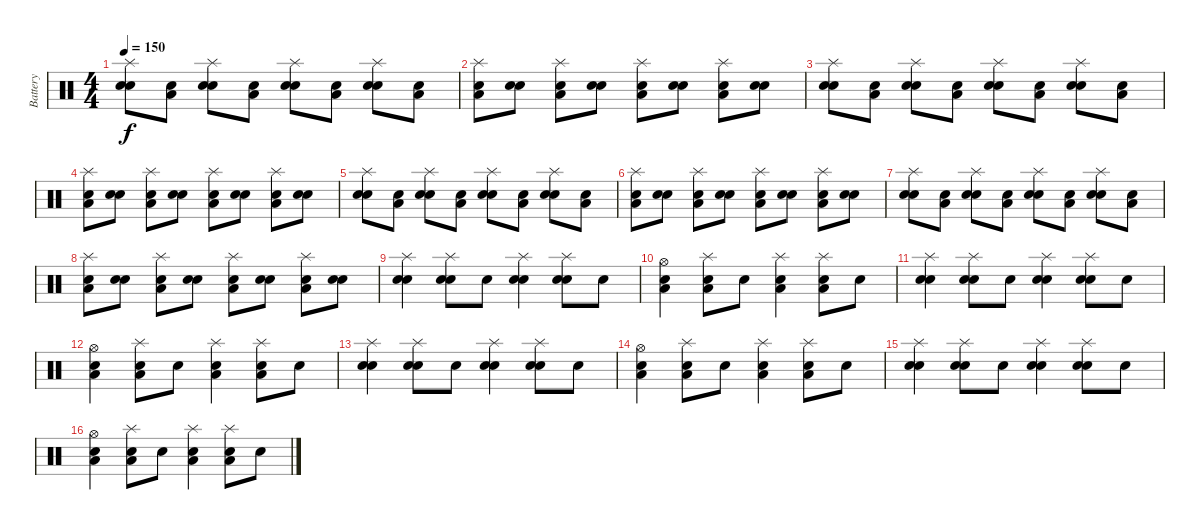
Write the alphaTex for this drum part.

\track ("Battery" "Battery") {instrument percussion}
\staff {score}
\articulation defaults
\ts (4 4)
\tempo 150
\clef neutral
\ks c
("Snare (hit) 2" "Splash (hit)" "Electric Snare (hit)").8{dy f} ("Snare (hit) 2" "Low Floor Tom (hit)").8 ("Snare (hit) 2" "Splash (hit)" "Electric Snare (hit)").8 ("Snare (hit) 2" "Low Floor Tom (hit)").8 ("Snare (hit) 2" "Splash (hit)" "Electric Snare (hit)").8 ("Snare (hit) 2" "Low Floor Tom (hit)").8 ("Snare (hit) 2" "Splash (hit)" "Electric Snare (hit)").8 ("Snare (hit) 2" "Low Floor Tom (hit)").8 |
("Snare (hit) 2" "Splash (hit)" "Low Floor Tom (hit)").8 ("Snare (hit) 2" "Electric Snare (hit)").8 ("Snare (hit) 2" "Splash (hit)" "Low Floor Tom (hit)").8 ("Snare (hit) 2" "Electric Snare (hit)").8 ("Snare (hit) 2" "Splash (hit)" "Low Floor Tom (hit)").8 ("Snare (hit) 2" "Electric Snare (hit)").8 ("Snare (hit) 2" "Splash (hit)" "Low Floor Tom (hit)").8 ("Snare (hit) 2" "Electric Snare (hit)").8 |
("Snare (hit) 2" "Splash (hit)" "Electric Snare (hit)").8 ("Snare (hit) 2" "Low Floor Tom (hit)").8 ("Snare (hit) 2" "Splash (hit)" "Electric Snare (hit)").8 ("Snare (hit) 2" "Low Floor Tom (hit)").8 ("Snare (hit) 2" "Splash (hit)" "Electric Snare (hit)").8 ("Snare (hit) 2" "Low Floor Tom (hit)").8 ("Snare (hit) 2" "Splash (hit)" "Electric Snare (hit)").8 ("Snare (hit) 2" "Low Floor Tom (hit)").8 |
("Snare (hit) 2" "Splash (hit)" "Low Floor Tom (hit)").8 ("Snare (hit) 2" "Electric Snare (hit)").8 ("Snare (hit) 2" "Splash (hit)" "Low Floor Tom (hit)").8 ("Snare (hit) 2" "Electric Snare (hit)").8 ("Snare (hit) 2" "Splash (hit)" "Low Floor Tom (hit)").8 ("Snare (hit) 2" "Electric Snare (hit)").8 ("Snare (hit) 2" "Splash (hit)" "Low Floor Tom (hit)").8 ("Snare (hit) 2" "Electric Snare (hit)").8 |
("Snare (hit) 2" "Splash (hit)" "Electric Snare (hit)").8 ("Snare (hit) 2" "Low Floor Tom (hit)").8 ("Snare (hit) 2" "Splash (hit)" "Electric Snare (hit)").8 ("Snare (hit) 2" "Low Floor Tom (hit)").8 ("Snare (hit) 2" "Splash (hit)" "Electric Snare (hit)").8 ("Snare (hit) 2" "Low Floor Tom (hit)").8 ("Snare (hit) 2" "Splash (hit)" "Electric Snare (hit)").8 ("Snare (hit) 2" "Low Floor Tom (hit)").8 |
("Snare (hit) 2" "Splash (hit)" "Low Floor Tom (hit)").8 ("Snare (hit) 2" "Electric Snare (hit)").8 ("Snare (hit) 2" "Splash (hit)" "Low Floor Tom (hit)").8 ("Snare (hit) 2" "Electric Snare (hit)").8 ("Snare (hit) 2" "Splash (hit)" "Low Floor Tom (hit)").8 ("Snare (hit) 2" "Electric Snare (hit)").8 ("Snare (hit) 2" "Splash (hit)" "Low Floor Tom (hit)").8 ("Snare (hit) 2" "Electric Snare (hit)").8 |
("Snare (hit) 2" "Splash (hit)" "Electric Snare (hit)").8 ("Snare (hit) 2" "Low Floor Tom (hit)").8 ("Snare (hit) 2" "Splash (hit)" "Electric Snare (hit)").8 ("Snare (hit) 2" "Low Floor Tom (hit)").8 ("Snare (hit) 2" "Splash (hit)" "Electric Snare (hit)").8 ("Snare (hit) 2" "Low Floor Tom (hit)").8 ("Snare (hit) 2" "Splash (hit)" "Electric Snare (hit)").8 ("Snare (hit) 2" "Low Floor Tom (hit)").8 |
("Snare (hit) 2" "Splash (hit)" "Low Floor Tom (hit)").8 ("Snare (hit) 2" "Electric Snare (hit)").8 ("Snare (hit) 2" "Splash (hit)" "Low Floor Tom (hit)").8 ("Snare (hit) 2" "Electric Snare (hit)").8 ("Snare (hit) 2" "Splash (hit)" "Low Floor Tom (hit)").8 ("Snare (hit) 2" "Electric Snare (hit)").8 ("Snare (hit) 2" "Splash (hit)" "Low Floor Tom (hit)").8 ("Snare (hit) 2" "Electric Snare (hit)").8 |
("Snare (hit) 2" "Electric Snare (hit)" "Splash (hit)").4 ("Snare (hit) 2" "Electric Snare (hit)" "Splash (hit)").8 "Snare (hit) 2".8 ("Snare (hit) 2" "Electric Snare (hit)" "Splash (hit)").4 ("Snare (hit) 2" "Electric Snare (hit)" "Splash (hit)").8 "Snare (hit) 2".8 |
("Snare (hit) 2" "Low Floor Tom (hit)" "Hi-Hat (open)").4 ("Snare (hit) 2" "Low Floor Tom (hit)" "Splash (hit)").8 "Snare (hit) 2".8 ("Snare (hit) 2" "Low Floor Tom (hit)" "Splash (hit)").4 ("Snare (hit) 2" "Low Floor Tom (hit)" "Splash (hit)").8 "Snare (hit) 2".8 |
("Snare (hit) 2" "Electric Snare (hit)" "Splash (hit)").4 ("Snare (hit) 2" "Electric Snare (hit)" "Splash (hit)").8 "Snare (hit) 2".8 ("Snare (hit) 2" "Electric Snare (hit)" "Splash (hit)").4 ("Snare (hit) 2" "Electric Snare (hit)" "Splash (hit)").8 "Snare (hit) 2".8 |
("Snare (hit) 2" "Low Floor Tom (hit)" "Hi-Hat (open)").4 ("Snare (hit) 2" "Low Floor Tom (hit)" "Splash (hit)").8 "Snare (hit) 2".8 ("Snare (hit) 2" "Low Floor Tom (hit)" "Splash (hit)").4 ("Snare (hit) 2" "Low Floor Tom (hit)" "Splash (hit)").8 "Snare (hit) 2".8 |
("Snare (hit) 2" "Electric Snare (hit)" "Splash (hit)").4 ("Snare (hit) 2" "Electric Snare (hit)" "Splash (hit)").8 "Snare (hit) 2".8 ("Snare (hit) 2" "Electric Snare (hit)" "Splash (hit)").4 ("Snare (hit) 2" "Electric Snare (hit)" "Splash (hit)").8 "Snare (hit) 2".8 |
("Snare (hit) 2" "Low Floor Tom (hit)" "Hi-Hat (open)").4 ("Snare (hit) 2" "Low Floor Tom (hit)" "Splash (hit)").8 "Snare (hit) 2".8 ("Snare (hit) 2" "Low Floor Tom (hit)" "Splash (hit)").4 ("Snare (hit) 2" "Low Floor Tom (hit)" "Splash (hit)").8 "Snare (hit) 2".8 |
("Snare (hit) 2" "Electric Snare (hit)" "Splash (hit)").4 ("Snare (hit) 2" "Electric Snare (hit)" "Splash (hit)").8 "Snare (hit) 2".8 ("Snare (hit) 2" "Electric Snare (hit)" "Splash (hit)").4 ("Snare (hit) 2" "Electric Snare (hit)" "Splash (hit)").8 "Snare (hit) 2".8 |
("Snare (hit) 2" "Low Floor Tom (hit)" "Hi-Hat (open)").4 ("Snare (hit) 2" "Low Floor Tom (hit)" "Splash (hit)").8 "Snare (hit) 2".8 ("Snare (hit) 2" "Low Floor Tom (hit)" "Splash (hit)").4 ("Snare (hit) 2" "Low Floor Tom (hit)" "Splash (hit)").8 "Snare (hit) 2".8
